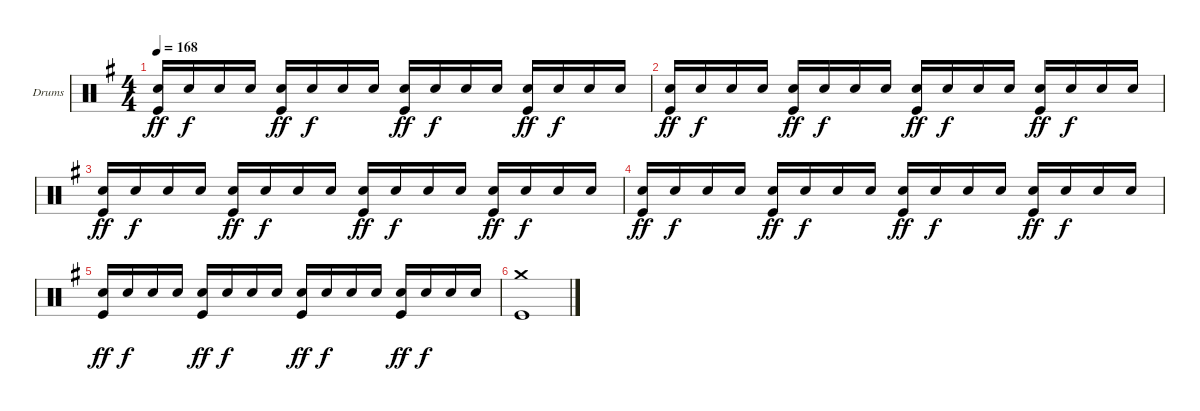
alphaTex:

\defaultSystemsLayout 4
\bracketExtendMode groupsimilarinstruments
\firstSystemTrackNameOrientation horizontal
\otherSystemsTrackNameOrientation horizontal
\track ("Drumkit" "Drums") {instrument percussion}
\staff {score}
\articulation defaults
\ts (4 4)
\tempo 168
\clef neutral
\ks g
("Snare (hit) 2" "Kick (hit)").16{dy ff} "Snare (hit) 2".16{dy f} "Snare (hit) 2".16 "Snare (hit) 2".16 ("Snare (hit) 2" "Kick (hit)").16{dy ff} "Snare (hit) 2".16{dy f} "Snare (hit) 2".16 "Snare (hit) 2".16 ("Snare (hit) 2" "Kick (hit)").16{dy ff} "Snare (hit) 2".16{dy f} "Snare (hit) 2".16 "Snare (hit) 2".16 ("Snare (hit) 2" "Kick (hit)").16{dy ff} "Snare (hit) 2".16{dy f} "Snare (hit) 2".16 "Snare (hit) 2".16 |
("Snare (hit) 2" "Kick (hit)").16{dy ff} "Snare (hit) 2".16{dy f} "Snare (hit) 2".16 "Snare (hit) 2".16 ("Snare (hit) 2" "Kick (hit)").16{dy ff} "Snare (hit) 2".16{dy f} "Snare (hit) 2".16 "Snare (hit) 2".16 ("Snare (hit) 2" "Kick (hit)").16{dy ff} "Snare (hit) 2".16{dy f} "Snare (hit) 2".16 "Snare (hit) 2".16 ("Snare (hit) 2" "Kick (hit)").16{dy ff} "Snare (hit) 2".16{dy f} "Snare (hit) 2".16 "Snare (hit) 2".16 |
("Snare (hit) 2" "Kick (hit)").16{dy ff} "Snare (hit) 2".16{dy f} "Snare (hit) 2".16 "Snare (hit) 2".16 ("Snare (hit) 2" "Kick (hit)").16{dy ff} "Snare (hit) 2".16{dy f} "Snare (hit) 2".16 "Snare (hit) 2".16 ("Snare (hit) 2" "Kick (hit)").16{dy ff} "Snare (hit) 2".16{dy f} "Snare (hit) 2".16 "Snare (hit) 2".16 ("Snare (hit) 2" "Kick (hit)").16{dy ff} "Snare (hit) 2".16{dy f} "Snare (hit) 2".16 "Snare (hit) 2".16 |
("Snare (hit) 2" "Kick (hit)").16{dy ff} "Snare (hit) 2".16{dy f} "Snare (hit) 2".16 "Snare (hit) 2".16 ("Snare (hit) 2" "Kick (hit)").16{dy ff} "Snare (hit) 2".16{dy f} "Snare (hit) 2".16 "Snare (hit) 2".16 ("Snare (hit) 2" "Kick (hit)").16{dy ff} "Snare (hit) 2".16{dy f} "Snare (hit) 2".16 "Snare (hit) 2".16 ("Snare (hit) 2" "Kick (hit)").16{dy ff} "Snare (hit) 2".16{dy f} "Snare (hit) 2".16 "Snare (hit) 2".16 |
("Snare (hit) 2" "Kick (hit)").16{dy ff} "Snare (hit) 2".16{dy f} "Snare (hit) 2".16 "Snare (hit) 2".16 ("Snare (hit) 2" "Kick (hit)").16{dy ff} "Snare (hit) 2".16{dy f} "Snare (hit) 2".16 "Snare (hit) 2".16 ("Snare (hit) 2" "Kick (hit)").16{dy ff} "Snare (hit) 2".16{dy f} "Snare (hit) 2".16 "Snare (hit) 2".16 ("Snare (hit) 2" "Kick (hit)").16{dy ff} "Snare (hit) 2".16{dy f} "Snare (hit) 2".16 "Snare (hit) 2".16 |
("Crash medium (hit)" "Kick (hit)").1
